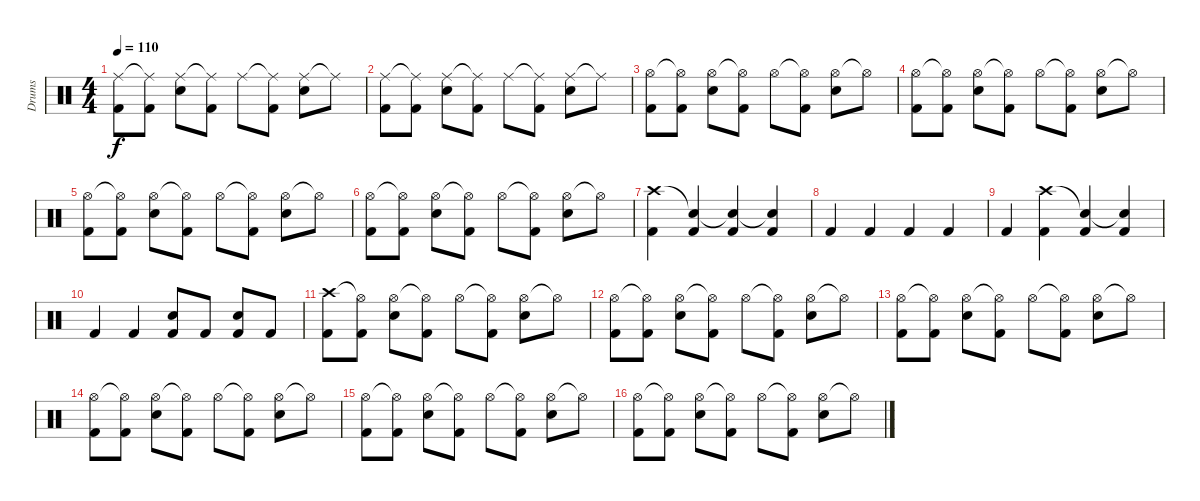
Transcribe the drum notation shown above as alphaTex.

\track ("Drums" "Drums") {instrument percussion}
\staff {score}
\articulation defaults
\ts (4 4)
\tempo 110
\clef neutral
\ks c
("Ride (middle)" "Kick (hit) 2").8{dy f} ("Ride (middle)"{t} "Kick (hit) 2").8 ("Ride (middle)" "Snare (hit) 2").8 ("Ride (middle)"{t} "Kick (hit) 2").8 "Ride (middle)".8 ("Ride (middle)"{t} "Kick (hit) 2").8 ("Ride (middle)" "Snare (hit) 2").8 "Ride (middle)"{t}.8 |
("Ride (middle)" "Kick (hit) 2").8 ("Ride (middle)"{t} "Kick (hit) 2").8 ("Ride (middle)" "Snare (hit) 2").8 ("Ride (middle)"{t} "Kick (hit) 2").8 "Ride (middle)".8 ("Ride (middle)"{t} "Kick (hit) 2").8 ("Ride (middle)" "Snare (hit) 2").8 "Ride (middle)"{t}.8 |
("Hi-Hat (open)" "Kick (hit) 2").8 ("Hi-Hat (open)"{t} "Kick (hit) 2").8 ("Hi-Hat (open)" "Snare (hit) 2").8 ("Hi-Hat (open)"{t} "Kick (hit) 2").8 "Hi-Hat (open)".8 ("Hi-Hat (open)"{t} "Kick (hit) 2").8 ("Hi-Hat (open)" "Snare (hit) 2").8 "Hi-Hat (open)"{t}.8 |
("Hi-Hat (open)" "Kick (hit) 2").8 ("Hi-Hat (open)"{t} "Kick (hit) 2").8 ("Hi-Hat (open)" "Snare (hit) 2").8 ("Hi-Hat (open)"{t} "Kick (hit) 2").8 "Hi-Hat (open)".8 ("Hi-Hat (open)"{t} "Kick (hit) 2").8 ("Hi-Hat (open)" "Snare (hit) 2").8 "Hi-Hat (open)"{t}.8 |
("Hi-Hat (open)" "Kick (hit) 2").8 ("Hi-Hat (open)"{t} "Kick (hit) 2").8 ("Hi-Hat (open)" "Snare (hit) 2").8 ("Hi-Hat (open)"{t} "Kick (hit) 2").8 "Hi-Hat (open)".8 ("Hi-Hat (open)"{t} "Kick (hit) 2").8 ("Hi-Hat (open)" "Snare (hit) 2").8 "Hi-Hat (open)"{t}.8 |
("Hi-Hat (open)" "Kick (hit) 2").8 ("Hi-Hat (open)"{t} "Kick (hit) 2").8 ("Hi-Hat (open)" "Snare (hit) 2").8 ("Hi-Hat (open)"{t} "Kick (hit) 2").8 "Hi-Hat (open)".8 ("Hi-Hat (open)"{t} "Kick (hit) 2").8 ("Hi-Hat (open)" "Snare (hit) 2").8 "Hi-Hat (open)"{t}.8 |
("Crash high (hit)" "Kick (hit) 2").4 ("Snare (hit)"{t} "Kick (hit) 2").4 ("Snare (hit)"{t} "Kick (hit) 2").4 ("Snare (hit)"{t} "Kick (hit) 2").4 |
"Kick (hit) 2".4 "Kick (hit) 2".4 "Kick (hit) 2".4 "Kick (hit) 2".4 |
"Kick (hit) 2".4 ("Crash high (hit)" "Kick (hit) 2").4 ("Snare (hit)"{t} "Kick (hit) 2").4 ("Snare (hit)"{t} "Kick (hit) 2").4 |
"Kick (hit) 2".4 "Kick (hit) 2".4 ("Snare (hit) 2" "Kick (hit) 2").8 "Kick (hit) 2".8 ("Snare (hit) 2" "Kick (hit) 2").8 "Kick (hit) 2".8 |
("Crash high (hit)" "Kick (hit) 2").8 ("Hi-Hat (open)"{t} "Kick (hit) 2").8 ("Hi-Hat (open)" "Snare (hit) 2").8 ("Hi-Hat (open)"{t} "Kick (hit) 2").8 "Hi-Hat (open)".8 ("Hi-Hat (open)"{t} "Kick (hit) 2").8 ("Hi-Hat (open)" "Snare (hit) 2").8 "Hi-Hat (open)"{t}.8 |
("Hi-Hat (open)" "Kick (hit) 2").8 ("Hi-Hat (open)"{t} "Kick (hit) 2").8 ("Hi-Hat (open)" "Snare (hit) 2").8 ("Hi-Hat (open)"{t} "Kick (hit) 2").8 "Hi-Hat (open)".8 ("Hi-Hat (open)"{t} "Kick (hit) 2").8 ("Hi-Hat (open)" "Snare (hit) 2").8 "Hi-Hat (open)"{t}.8 |
("Hi-Hat (open)" "Kick (hit) 2").8 ("Hi-Hat (open)"{t} "Kick (hit) 2").8 ("Hi-Hat (open)" "Snare (hit) 2").8 ("Hi-Hat (open)"{t} "Kick (hit) 2").8 "Hi-Hat (open)".8 ("Hi-Hat (open)"{t} "Kick (hit) 2").8 ("Hi-Hat (open)" "Snare (hit) 2").8 "Hi-Hat (open)"{t}.8 |
("Hi-Hat (open)" "Kick (hit) 2").8 ("Hi-Hat (open)"{t} "Kick (hit) 2").8 ("Hi-Hat (open)" "Snare (hit) 2").8 ("Hi-Hat (open)"{t} "Kick (hit) 2").8 "Hi-Hat (open)".8 ("Hi-Hat (open)"{t} "Kick (hit) 2").8 ("Hi-Hat (open)" "Snare (hit) 2").8 "Hi-Hat (open)"{t}.8 |
("Hi-Hat (open)" "Kick (hit) 2").8 ("Hi-Hat (open)"{t} "Kick (hit) 2").8 ("Hi-Hat (open)" "Snare (hit) 2").8 ("Hi-Hat (open)"{t} "Kick (hit) 2").8 "Hi-Hat (open)".8 ("Hi-Hat (open)"{t} "Kick (hit) 2").8 ("Hi-Hat (open)" "Snare (hit) 2").8 "Hi-Hat (open)"{t}.8 |
("Hi-Hat (open)" "Kick (hit) 2").8 ("Hi-Hat (open)"{t} "Kick (hit) 2").8 ("Hi-Hat (open)" "Snare (hit) 2").8 ("Hi-Hat (open)"{t} "Kick (hit) 2").8 "Hi-Hat (open)".8 ("Hi-Hat (open)"{t} "Kick (hit) 2").8 ("Hi-Hat (open)" "Snare (hit) 2").8 "Hi-Hat (open)"{t}.8
